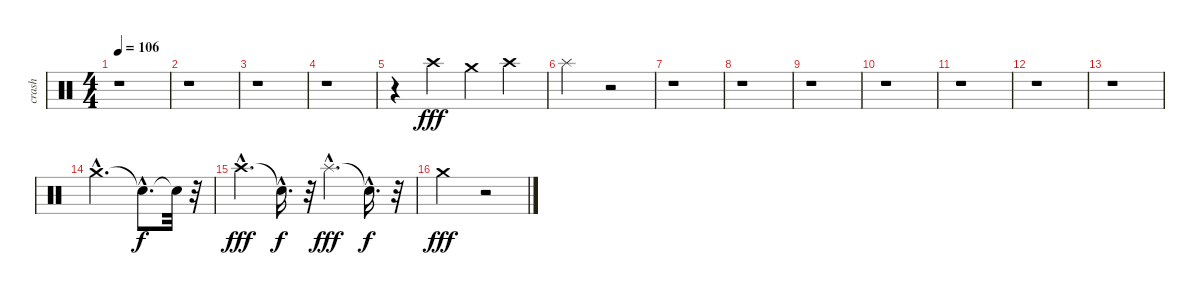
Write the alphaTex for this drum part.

\track ("crash" "crash") {instrument percussion}
\staff {score}
\articulation defaults
\ts (4 4)
\tempo 106
\clef neutral
\ks c
r.1{dy fff} |
r.1 |
r.1 |
r.1 |
r.4 "Crash high (hit)".4 "Crash medium (hit)".4 "Crash high (hit)".4 |
"Splash (hit)".2 r.2 |
r.1 |
r.1 |
r.1 |
r.1 |
r.1 |
r.1 |
r.1 |
"Crash medium (hit)"{hac}.2{d} "Snare (hit)"{hac t}.8{d dy f} "Snare (hit)"{t}.32 r.32 |
"Crash high (hit)"{hac}.4{d dy fff} "Snare (hit)"{hac t}.16{d dy f} r.32 "Splash (hit)"{hac}.4{d dy fff} "Snare (hit)"{hac t}.16{d dy f} r.32 |
"Crash medium (hit)".2{dy fff} r.2
